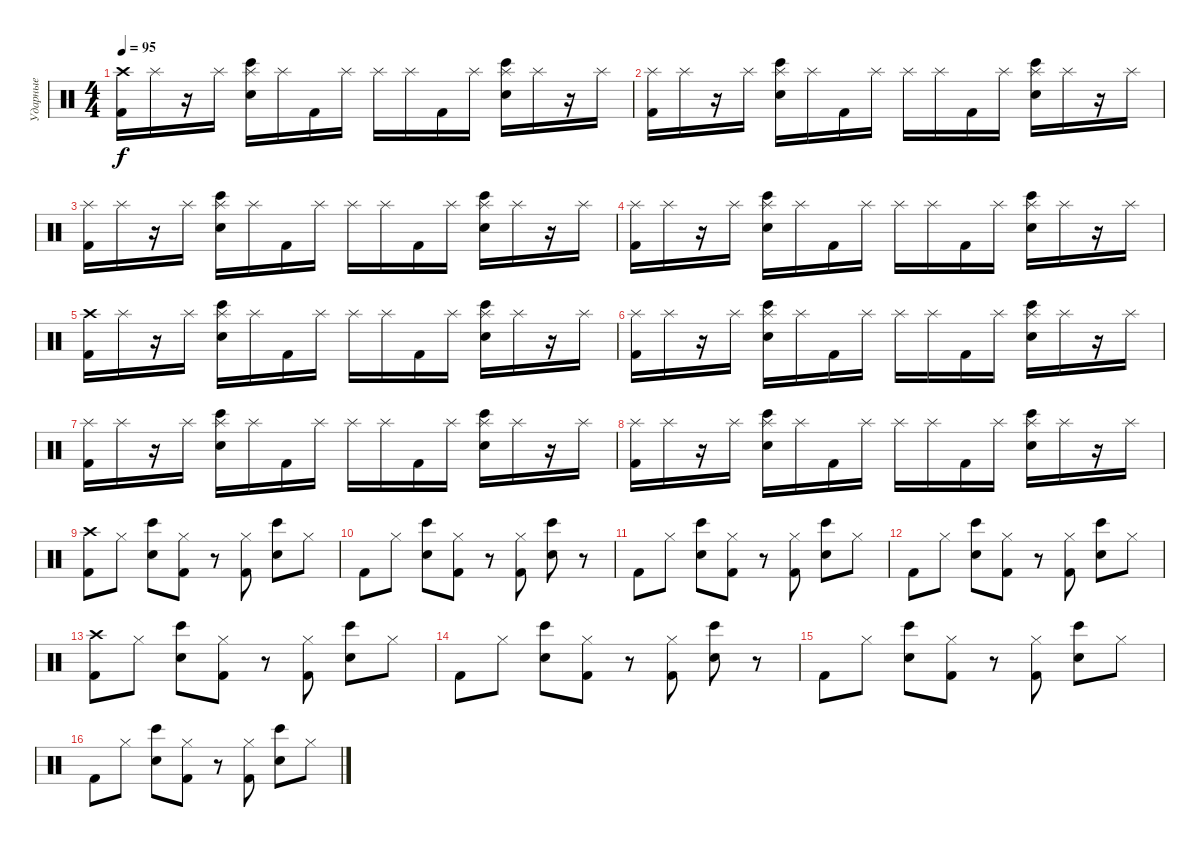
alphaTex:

\track ("Ударные" "Ударные") {instrument percussion}
\staff {score}
\articulation defaults
\ts (4 4)
\tempo 95
\clef neutral
\ks c
("Crash high (hit)" "Kick (hit) 2").16{dy f} "Splash (hit)".16 r.16 "Splash (hit)".16 ("Splash (hit)" "Electric Snare (hit)" "Bongo High (hit)").16 "Splash (hit)".16 "Kick (hit) 2".16 "Splash (hit)".16 "Splash (hit)".16 "Splash (hit)".16 "Kick (hit) 2".16 "Splash (hit)".16 ("Splash (hit)" "Electric Snare (hit)" "Bongo High (hit)").16 "Splash (hit)".16 r.16 "Splash (hit)".16 |
("Splash (hit)" "Kick (hit) 2").16 "Splash (hit)".16 r.16 "Splash (hit)".16 ("Splash (hit)" "Electric Snare (hit)" "Bongo High (hit)").16 "Splash (hit)".16 "Kick (hit) 2".16 "Splash (hit)".16 "Splash (hit)".16 "Splash (hit)".16 "Kick (hit) 2".16 "Splash (hit)".16 ("Splash (hit)" "Electric Snare (hit)" "Bongo High (hit)").16 "Splash (hit)".16 r.16 "Splash (hit)".16 |
("Splash (hit)" "Kick (hit) 2").16 "Splash (hit)".16 r.16 "Splash (hit)".16 ("Splash (hit)" "Electric Snare (hit)" "Bongo High (hit)").16 "Splash (hit)".16 "Kick (hit) 2".16 "Splash (hit)".16 "Splash (hit)".16 "Splash (hit)".16 "Kick (hit) 2".16 "Splash (hit)".16 ("Splash (hit)" "Electric Snare (hit)" "Bongo High (hit)").16 "Splash (hit)".16 r.16 "Splash (hit)".16 |
("Splash (hit)" "Kick (hit) 2").16 "Splash (hit)".16 r.16 "Splash (hit)".16 ("Splash (hit)" "Electric Snare (hit)" "Bongo High (hit)").16 "Splash (hit)".16 "Kick (hit) 2".16 "Splash (hit)".16 "Splash (hit)".16 "Splash (hit)".16 "Kick (hit) 2".16 "Splash (hit)".16 ("Splash (hit)" "Electric Snare (hit)" "Bongo High (hit)").16 "Splash (hit)".16 r.16 "Splash (hit)".16 |
("Crash high (hit)" "Kick (hit) 2").16 "Splash (hit)".16 r.16 "Splash (hit)".16 ("Splash (hit)" "Electric Snare (hit)" "Bongo High (hit)").16 "Splash (hit)".16 "Kick (hit) 2".16 "Splash (hit)".16 "Splash (hit)".16 "Splash (hit)".16 "Kick (hit) 2".16 "Splash (hit)".16 ("Splash (hit)" "Electric Snare (hit)" "Bongo High (hit)").16 "Splash (hit)".16 r.16 "Splash (hit)".16 |
("Splash (hit)" "Kick (hit) 2").16 "Splash (hit)".16 r.16 "Splash (hit)".16 ("Splash (hit)" "Electric Snare (hit)" "Bongo High (hit)").16 "Splash (hit)".16 "Kick (hit) 2".16 "Splash (hit)".16 "Splash (hit)".16 "Splash (hit)".16 "Kick (hit) 2".16 "Splash (hit)".16 ("Splash (hit)" "Electric Snare (hit)" "Bongo High (hit)").16 "Splash (hit)".16 r.16 "Splash (hit)".16 |
("Splash (hit)" "Kick (hit) 2").16 "Splash (hit)".16 r.16 "Splash (hit)".16 ("Splash (hit)" "Electric Snare (hit)" "Bongo High (hit)").16 "Splash (hit)".16 "Kick (hit) 2".16 "Splash (hit)".16 "Splash (hit)".16 "Splash (hit)".16 "Kick (hit) 2".16 "Splash (hit)".16 ("Splash (hit)" "Electric Snare (hit)" "Bongo High (hit)").16 "Splash (hit)".16 r.16 "Splash (hit)".16 |
("Splash (hit)" "Kick (hit) 2").16 "Splash (hit)".16 r.16 "Splash (hit)".16 ("Splash (hit)" "Electric Snare (hit)" "Bongo High (hit)").16 "Splash (hit)".16 "Kick (hit) 2".16 "Splash (hit)".16 "Splash (hit)".16 "Splash (hit)".16 "Kick (hit) 2".16 "Splash (hit)".16 ("Splash (hit)" "Electric Snare (hit)" "Bongo High (hit)").16 "Splash (hit)".16 r.16 "Splash (hit)".16 |
("Crash high (hit)" "Kick (hit) 2").8 "Hi-Hat (closed)".8 ("Electric Snare (hit)" "Bongo High (hit)").8 ("Hi-Hat (closed)" "Kick (hit) 2").8 r.8 ("Hi-Hat (closed)" "Kick (hit) 2").8 ("Electric Snare (hit)" "Bongo High (hit)").8 "Hi-Hat (closed)".8 |
"Kick (hit) 2".8 "Hi-Hat (closed)".8 ("Electric Snare (hit)" "Bongo High (hit)").8 ("Hi-Hat (closed)" "Kick (hit) 2").8 r.8 ("Hi-Hat (closed)" "Kick (hit) 2").8 ("Electric Snare (hit)" "Bongo High (hit)").8 r.8 |
"Kick (hit) 2".8 "Hi-Hat (closed)".8 ("Electric Snare (hit)" "Bongo High (hit)").8 ("Hi-Hat (closed)" "Kick (hit) 2").8 r.8 ("Hi-Hat (closed)" "Kick (hit) 2").8 ("Electric Snare (hit)" "Bongo High (hit)").8 "Hi-Hat (closed)".8 |
"Kick (hit) 2".8 "Hi-Hat (closed)".8 ("Electric Snare (hit)" "Bongo High (hit)").8 ("Hi-Hat (closed)" "Kick (hit) 2").8 r.8 ("Hi-Hat (closed)" "Kick (hit) 2").8 ("Electric Snare (hit)" "Bongo High (hit)").8 "Hi-Hat (closed)".8 |
("Crash high (hit)" "Kick (hit) 2").8 "Hi-Hat (closed)".8 ("Electric Snare (hit)" "Bongo High (hit)").8 ("Hi-Hat (closed)" "Kick (hit) 2").8 r.8 ("Hi-Hat (closed)" "Kick (hit) 2").8 ("Electric Snare (hit)" "Bongo High (hit)").8 "Hi-Hat (closed)".8 |
"Kick (hit) 2".8 "Hi-Hat (closed)".8 ("Electric Snare (hit)" "Bongo High (hit)").8 ("Hi-Hat (closed)" "Kick (hit) 2").8 r.8 ("Hi-Hat (closed)" "Kick (hit) 2").8 ("Electric Snare (hit)" "Bongo High (hit)").8 r.8 |
"Kick (hit) 2".8 "Hi-Hat (closed)".8 ("Electric Snare (hit)" "Bongo High (hit)").8 ("Hi-Hat (closed)" "Kick (hit) 2").8 r.8 ("Hi-Hat (closed)" "Kick (hit) 2").8 ("Electric Snare (hit)" "Bongo High (hit)").8 "Hi-Hat (closed)".8 |
"Kick (hit) 2".8 "Hi-Hat (closed)".8 ("Electric Snare (hit)" "Bongo High (hit)").8 ("Hi-Hat (closed)" "Kick (hit) 2").8 r.8 ("Hi-Hat (closed)" "Kick (hit) 2").8 ("Electric Snare (hit)" "Bongo High (hit)").8 "Hi-Hat (closed)".8
